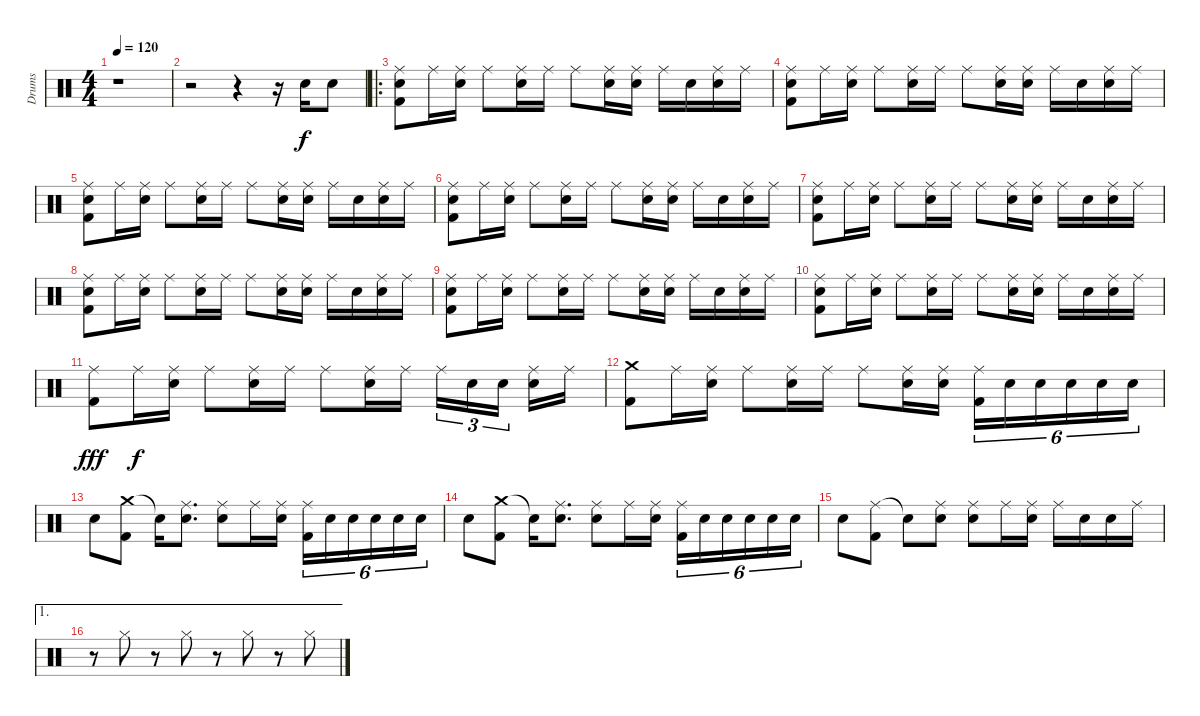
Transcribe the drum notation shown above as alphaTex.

\track ("Drums" "Drums") {instrument percussion}
\staff {score}
\articulation defaults
\ts (4 4)
\tempo 120
\clef neutral
\ks c
r.1{dy f} |
r.2 r.4 r.16 "Snare (hit) 2".16 "Snare (hit) 2".8 |
\ro
("Ride (middle)" "Snare (hit) 2" "Kick (hit) 2").8 "Ride (middle)".16 ("Ride (middle)" "Snare (hit) 2").16 "Ride (middle)".8 ("Ride (middle)" "Snare (hit) 2").16 "Ride (middle)".16 "Ride (middle)".8 ("Ride (middle)" "Snare (hit) 2").16 ("Ride (middle)" "Snare (hit) 2").16 "Ride (middle)".16 "Snare (hit) 2".16 ("Ride (middle)" "Snare (hit) 2").16 "Ride (middle)".16 |
("Ride (middle)" "Snare (hit) 2" "Kick (hit) 2").8 "Ride (middle)".16 ("Ride (middle)" "Snare (hit) 2").16 "Ride (middle)".8 ("Ride (middle)" "Snare (hit) 2").16 "Ride (middle)".16 "Ride (middle)".8 ("Ride (middle)" "Snare (hit) 2").16 ("Ride (middle)" "Snare (hit) 2").16 "Ride (middle)".16 "Snare (hit) 2".16 ("Ride (middle)" "Snare (hit) 2").16 "Ride (middle)".16 |
("Ride (middle)" "Snare (hit) 2" "Kick (hit) 2").8 "Ride (middle)".16 ("Ride (middle)" "Snare (hit) 2").16 "Ride (middle)".8 ("Ride (middle)" "Snare (hit) 2").16 "Ride (middle)".16 "Ride (middle)".8 ("Ride (middle)" "Snare (hit) 2").16 ("Ride (middle)" "Snare (hit) 2").16 "Ride (middle)".16 "Snare (hit) 2".16 ("Ride (middle)" "Snare (hit) 2").16 "Ride (middle)".16 |
("Ride (middle)" "Snare (hit) 2" "Kick (hit) 2").8 "Ride (middle)".16 ("Ride (middle)" "Snare (hit) 2").16 "Ride (middle)".8 ("Ride (middle)" "Snare (hit) 2").16 "Ride (middle)".16 "Ride (middle)".8 ("Ride (middle)" "Snare (hit) 2").16 ("Ride (middle)" "Snare (hit) 2").16 "Ride (middle)".16 "Snare (hit) 2".16 ("Ride (middle)" "Snare (hit) 2").16 "Ride (middle)".16 |
("Ride (middle)" "Snare (hit) 2" "Kick (hit) 2").8 "Ride (middle)".16 ("Ride (middle)" "Snare (hit) 2").16 "Ride (middle)".8 ("Ride (middle)" "Snare (hit) 2").16 "Ride (middle)".16 "Ride (middle)".8 ("Ride (middle)" "Snare (hit) 2").16 ("Ride (middle)" "Snare (hit) 2").16 "Ride (middle)".16 "Snare (hit) 2".16 ("Ride (middle)" "Snare (hit) 2").16 "Ride (middle)".16 |
("Ride (middle)" "Snare (hit) 2" "Kick (hit) 2").8 "Ride (middle)".16 ("Ride (middle)" "Snare (hit) 2").16 "Ride (middle)".8 ("Ride (middle)" "Snare (hit) 2").16 "Ride (middle)".16 "Ride (middle)".8 ("Ride (middle)" "Snare (hit) 2").16 ("Ride (middle)" "Snare (hit) 2").16 "Ride (middle)".16 "Snare (hit) 2".16 ("Ride (middle)" "Snare (hit) 2").16 "Ride (middle)".16 |
("Ride (middle)" "Snare (hit) 2" "Kick (hit) 2").8 "Ride (middle)".16 ("Ride (middle)" "Snare (hit) 2").16 "Ride (middle)".8 ("Ride (middle)" "Snare (hit) 2").16 "Ride (middle)".16 "Ride (middle)".8 ("Ride (middle)" "Snare (hit) 2").16 ("Ride (middle)" "Snare (hit) 2").16 "Ride (middle)".16 "Snare (hit) 2".16 ("Ride (middle)" "Snare (hit) 2").16 "Ride (middle)".16 |
("Ride (middle)" "Snare (hit) 2" "Kick (hit) 2").8 "Ride (middle)".16 ("Ride (middle)" "Snare (hit) 2").16 "Ride (middle)".8 ("Ride (middle)" "Snare (hit) 2").16 "Ride (middle)".16 "Ride (middle)".8 ("Ride (middle)" "Snare (hit) 2").16 ("Ride (middle)" "Snare (hit) 2").16 "Ride (middle)".16 "Snare (hit) 2".16 ("Ride (middle)" "Snare (hit) 2").16 "Ride (middle)".16 |
("Ride (middle)" "Kick (hit) 2").8{dy fff} "Ride (middle)".16{dy f} ("Ride (middle)" "Snare (hit) 2").16 "Ride (middle)".8 ("Ride (middle)" "Snare (hit) 2").16 "Ride (middle)".16 "Ride (middle)".8 ("Ride (middle)" "Snare (hit) 2").16 "Ride (middle)".16 "Ride (middle)".16{tu (3 2)} "Snare (hit) 2".16{tu (3 2)} "Snare (hit) 2".16{tu (3 2)} ("Ride (middle)" "Snare (hit) 2").16 "Ride (middle)".16 |
("Crash medium (hit)" "Kick (hit) 2").8 "Ride (middle)".16 ("Ride (middle)" "Snare (hit) 2").16 "Ride (middle)".8 ("Ride (middle)" "Snare (hit) 2").16 "Ride (middle)".16 "Ride (middle)".8 ("Ride (middle)" "Snare (hit) 2").16 ("Ride (middle)" "Snare (hit) 2").16 ("Ride (middle)" "Kick (hit) 2").16{tu (6 4)} "Snare (hit) 2".16{tu (6 4)} "Snare (hit) 2".16{tu (6 4)} "Snare (hit) 2".16{tu (6 4)} "Snare (hit) 2".16{tu (6 4)} "Snare (hit) 2".16{tu (6 4)} |
"Snare (hit) 2".8 ("Crash medium (hit)" "Kick (hit) 2").8 "Snare (hit)"{t}.16 ("Ride (middle)" "Snare (hit) 2").8{d} ("Ride (middle)" "Snare (hit) 2").8 "Ride (middle)".16 ("Ride (middle)" "Snare (hit) 2").16 ("Ride (middle)" "Kick (hit) 2").16{tu (6 4)} "Snare (hit) 2".16{tu (6 4)} "Snare (hit) 2".16{tu (6 4)} "Snare (hit) 2".16{tu (6 4)} "Snare (hit) 2".16{tu (6 4)} "Snare (hit) 2".16{tu (6 4)} |
"Snare (hit) 2".8 ("Crash medium (hit)" "Kick (hit) 2").8 "Snare (hit)"{t}.16 ("Ride (middle)" "Snare (hit) 2").8{d} ("Ride (middle)" "Snare (hit) 2").8 "Ride (middle)".16 ("Ride (middle)" "Snare (hit) 2").16 ("Ride (middle)" "Kick (hit) 2").16{tu (6 4)} "Snare (hit) 2".16{tu (6 4)} "Snare (hit) 2".16{tu (6 4)} "Snare (hit) 2".16{tu (6 4)} "Snare (hit) 2".16{tu (6 4)} "Snare (hit) 2".16{tu (6 4)} |
"Snare (hit) 2".8 ("Ride (middle)" "Kick (hit) 2").8 "Snare (hit)"{t}.8 ("Ride (middle)" "Snare (hit) 2").8 ("Ride (middle)" "Snare (hit) 2").8 "Ride (middle)".16 ("Ride (middle)" "Snare (hit) 2").16 "Ride (middle)".16 "Snare (hit) 2".16 "Snare (hit) 2".16 "Ride (middle)".16 |
\ae 1
r.8 "Hi-Hat (closed)".8 r.8 "Hi-Hat (closed)".8 r.8 "Hi-Hat (closed)".8 r.8 "Hi-Hat (closed)".8
